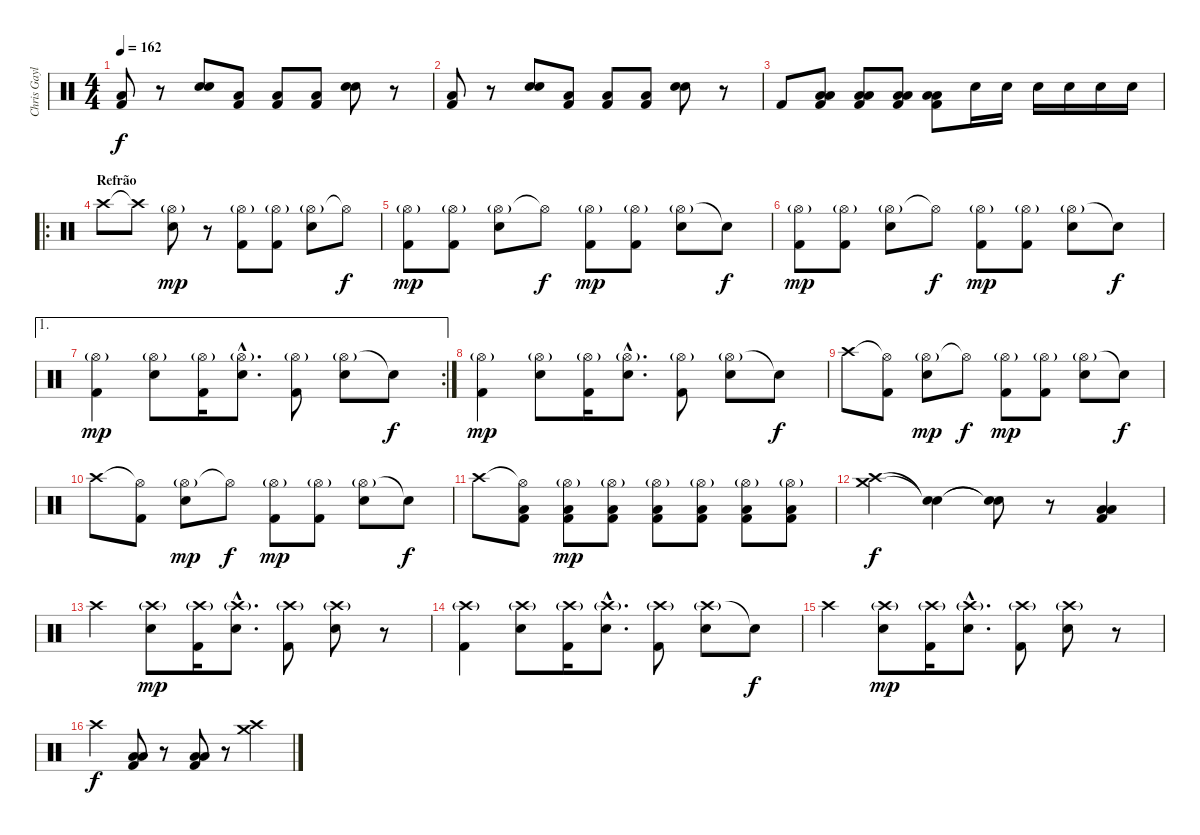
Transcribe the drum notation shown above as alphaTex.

\track ("Chris Gaylor" "Chris Gayl") {instrument percussion}
\staff {score}
\articulation defaults
\ts (4 4)
\tempo 162
\clef neutral
\ks c
("Low Floor Tom (hit)" "Kick (hit) 2").8{dy f} r.8 ("Snare (hit) 2" "Snare (hit) 2").8 ("Low Floor Tom (hit)" "Kick (hit) 2").8 ("Low Floor Tom (hit)" "Kick (hit) 2").8 ("Low Tom (hit)" "Kick (hit) 2").8 ("Snare (hit) 2" "Snare (hit) 2").8 r.8 |
("Low Floor Tom (hit)" "Kick (hit) 2").8 r.8 ("Snare (hit) 2" "Snare (hit) 2").8 ("Low Floor Tom (hit)" "Kick (hit) 2").8 ("Low Floor Tom (hit)" "Kick (hit) 2").8 ("Low Tom (hit)" "Kick (hit) 2").8 ("Snare (hit) 2" "Snare (hit) 2").8 r.8 |
"Kick (hit) 2".8 ("Low Floor Tom (hit)" "Low Tom (hit)" "Kick (hit) 2").8 ("Low Floor Tom (hit)" "Low Tom (hit)" "Kick (hit) 2").8 ("Low Floor Tom (hit)" "Low Tom (hit)" "Kick (hit) 2").8 ("Low Floor Tom (hit)" "Low Tom (hit)" "Kick (hit) 2").8 "Snare (hit) 2".16 "Snare (hit) 2".16 "Snare (hit) 2".16 "Snare (hit) 2".16 "Snare (hit) 2".16 "Snare (hit) 2".16 |
\ro
\section ("" "Refrão")
"Crash high (hit)".8 "Crash high (hit)"{t}.8 ("Hi-Hat (open)"{g} "Snare (hit) 2").8{dy mp} r.8 ("Hi-Hat (open)"{g} "Kick (hit) 2").8 ("Hi-Hat (open)"{g} "Kick (hit) 2").8 ("Hi-Hat (open)"{g} "Snare (hit) 2").8 "Hi-Hat (open)"{t}.8{dy f} |
("Hi-Hat (open)"{g} "Kick (hit) 2").8{dy mp} ("Hi-Hat (open)"{g} "Kick (hit) 2").8 ("Hi-Hat (open)"{g} "Snare (hit) 2").8 "Hi-Hat (open)"{t}.8{dy f} ("Hi-Hat (open)"{g} "Kick (hit) 2").8{dy mp} ("Hi-Hat (open)"{g} "Kick (hit) 2").8 ("Hi-Hat (open)"{g} "Snare (hit) 2").8 "Snare (hit)"{t}.8{dy f} |
("Hi-Hat (open)"{g} "Kick (hit) 2").8{dy mp} ("Hi-Hat (open)"{g} "Kick (hit) 2").8 ("Hi-Hat (open)"{g} "Snare (hit) 2").8 "Hi-Hat (open)"{t}.8{dy f} ("Hi-Hat (open)"{g} "Kick (hit) 2").8{dy mp} ("Hi-Hat (open)"{g} "Kick (hit) 2").8 ("Hi-Hat (open)"{g} "Snare (hit) 2").8 "Snare (hit)"{t}.8{dy f} |
\ae 1
\rc 2
("Hi-Hat (open)"{g} "Kick (hit) 2").4{dy mp} ("Hi-Hat (open)"{g} "Snare (hit) 2").8 ("Hi-Hat (open)"{g} "Kick (hit) 2").16 ("Hi-Hat (open)"{g hac} "Snare (hit) 2"{hac}).8{d} ("Hi-Hat (open)"{g} "Kick (hit) 2").8 ("Hi-Hat (open)"{g} "Snare (hit) 2").8 "Snare (hit)"{t}.8{dy f} |
("Hi-Hat (open)"{g} "Kick (hit) 2").4{dy mp} ("Hi-Hat (open)"{g} "Snare (hit) 2").8 ("Hi-Hat (open)"{g} "Kick (hit) 2").16 ("Hi-Hat (open)"{g hac} "Snare (hit) 2"{hac}).8{d} ("Hi-Hat (open)"{g} "Kick (hit) 2").8 ("Hi-Hat (open)"{g} "Snare (hit) 2").8 "Snare (hit)"{t}.8{dy f} |
"Crash high (hit)".8 ("Hi-Hat (open)"{t} "Kick (hit) 2").8 ("Hi-Hat (open)"{g} "Snare (hit) 2").8{dy mp} "Hi-Hat (open)"{t}.8{dy f} ("Hi-Hat (open)"{g} "Kick (hit) 2").8{dy mp} ("Hi-Hat (open)"{g} "Kick (hit) 2").8 ("Hi-Hat (open)"{g} "Snare (hit) 2").8 "Snare (hit)"{t}.8{dy f} |
"Crash high (hit)".8 ("Hi-Hat (open)"{t} "Kick (hit) 2").8 ("Hi-Hat (open)"{g} "Snare (hit) 2").8{dy mp} "Hi-Hat (open)"{t}.8{dy f} ("Hi-Hat (open)"{g} "Kick (hit) 2").8{dy mp} ("Hi-Hat (open)"{g} "Kick (hit) 2").8 ("Hi-Hat (open)"{g} "Snare (hit) 2").8 "Snare (hit)"{t}.8{dy f} |
"Crash high (hit)".8 ("Hi-Hat (open)"{t} "Low Tom (hit)" "Kick (hit) 2").8 ("Hi-Hat (open)"{g} "Low Tom (hit)" "Kick (hit) 2").8{dy mp} ("Hi-Hat (open)"{g} "Low Tom (hit)" "Kick (hit) 2").8 ("Hi-Hat (open)"{g} "Low Tom (hit)" "Kick (hit) 2").8 ("Hi-Hat (open)"{g} "Low Tom (hit)" "Kick (hit) 2").8 ("Hi-Hat (open)"{g} "Low Tom (hit)" "Kick (hit) 2").8 ("Hi-Hat (open)"{g} "Low Tom (hit)" "Kick (hit) 2").8 |
("Crash high (hit)" "Crash medium (hit)").4{dy f} ("Snare (hit)"{t} "Snare (hit)"{t}).4 ("Snare (hit)"{t} "Snare (hit)"{t}).8 r.8 ("Low Floor Tom (hit)" "Low Tom (hit)" "Kick (hit) 2").4 |
"Crash high (hit)".4 ("Crash high (hit)"{g} "Snare (hit) 2").8{dy mp} ("Crash high (hit)"{g} "Kick (hit) 2").16 ("Crash high (hit)"{g hac} "Snare (hit) 2"{hac}).8{d} ("Crash high (hit)"{g} "Kick (hit) 2").8 ("Crash high (hit)"{g} "Snare (hit) 2").8 r.8 |
("Crash high (hit)"{g} "Kick (hit) 2").4 ("Crash high (hit)"{g} "Snare (hit) 2").8 ("Crash high (hit)"{g} "Kick (hit) 2").16 ("Crash high (hit)"{g hac} "Snare (hit) 2"{hac}).8{d} ("Crash high (hit)"{g} "Kick (hit) 2").8 ("Crash high (hit)"{g} "Snare (hit) 2").8 "Snare (hit)"{t}.8{dy f} |
"Crash high (hit)".4 ("Crash high (hit)"{g} "Snare (hit) 2").8{dy mp} ("Crash high (hit)"{g} "Kick (hit) 2").16 ("Crash high (hit)"{g hac} "Snare (hit) 2"{hac}).8{d} ("Crash high (hit)"{g} "Kick (hit) 2").8 ("Crash high (hit)"{g} "Snare (hit) 2").8 r.8 |
"Crash high (hit)".4{dy f} ("Low Tom (hit)" "Low Floor Tom (hit)" "Kick (hit) 2").8 r.8 ("Low Tom (hit)" "Low Floor Tom (hit)" "Kick (hit) 2").8 r.8 ("Crash high (hit)" "Crash medium (hit)").4
